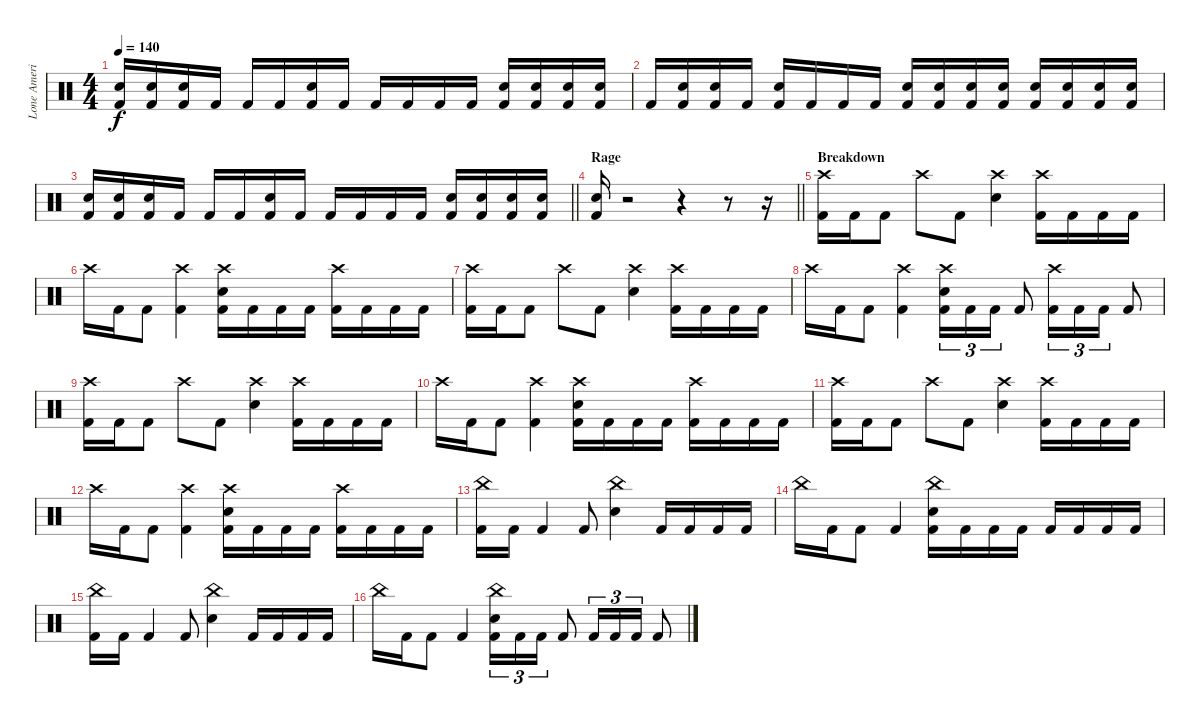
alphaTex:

\track ("Lone America" "Lone Ameri") {instrument percussion}
\staff {score}
\articulation defaults
\ts (4 4)
\tempo 140
\clef neutral
\ks c
("Electric Snare (hit)" "Kick (hit) 2").16{dy f} ("Electric Snare (hit)" "Kick (hit) 2").16 ("Electric Snare (hit)" "Kick (hit) 2").16 "Kick (hit) 2".16 "Kick (hit) 2".16 "Kick (hit) 2".16 ("Electric Snare (hit)" "Kick (hit) 2").16 "Kick (hit) 2".16 "Kick (hit) 2".16 "Kick (hit) 2".16 "Kick (hit) 2".16 "Kick (hit) 2".16 ("Electric Snare (hit)" "Kick (hit) 2").16 ("Electric Snare (hit)" "Kick (hit) 2").16 ("Electric Snare (hit)" "Kick (hit) 2").16 ("Electric Snare (hit)" "Kick (hit) 2").16 |
"Kick (hit) 2".16 ("Electric Snare (hit)" "Kick (hit) 2").16 ("Electric Snare (hit)" "Kick (hit) 2").16 "Kick (hit) 2".16 ("Electric Snare (hit)" "Kick (hit) 2").16 "Kick (hit) 2".16 "Kick (hit) 2".16 "Kick (hit) 2".16 ("Electric Snare (hit)" "Kick (hit) 2").16 ("Electric Snare (hit)" "Kick (hit) 2").16 ("Electric Snare (hit)" "Kick (hit) 2").16 ("Electric Snare (hit)" "Kick (hit) 2").16 ("Electric Snare (hit)" "Kick (hit) 2").16 ("Electric Snare (hit)" "Kick (hit) 2").16 ("Electric Snare (hit)" "Kick (hit) 2").16 ("Electric Snare (hit)" "Kick (hit) 2").16 |
\barLineRight lightlight
("Electric Snare (hit)" "Kick (hit) 2").16 ("Electric Snare (hit)" "Kick (hit) 2").16 ("Electric Snare (hit)" "Kick (hit) 2").16 "Kick (hit) 2".16 "Kick (hit) 2".16 "Kick (hit) 2".16 ("Electric Snare (hit)" "Kick (hit) 2").16 "Kick (hit) 2".16 "Kick (hit) 2".16 "Kick (hit) 2".16 "Kick (hit) 2".16 "Kick (hit) 2".16 ("Electric Snare (hit)" "Kick (hit) 2").16 ("Electric Snare (hit)" "Kick (hit) 2").16 ("Electric Snare (hit)" "Kick (hit) 2").16 ("Electric Snare (hit)" "Kick (hit) 2").16 |
\section ("" "Rage")
\barLineRight lightlight
("Electric Snare (hit)" "Kick (hit) 2").16 r.2 r.4 r.8 r.16 |
\section ("" "Breakdown")
("Crash high (hit)" "Kick (hit) 2").16 "Kick (hit) 2".16 "Kick (hit) 2".8 "Crash high (hit)".8 "Kick (hit) 2".8 ("Crash high (hit)" "Electric Snare (hit)").4 ("Crash high (hit)" "Kick (hit) 2").16 "Kick (hit) 2".16 "Kick (hit) 2".16 "Kick (hit) 2".16 |
"Crash high (hit)".16 "Kick (hit) 2".16 "Kick (hit) 2".8 ("Crash high (hit)" "Kick (hit) 2").4 ("Crash high (hit)" "Electric Snare (hit)" "Kick (hit) 2").16 "Kick (hit) 2".16 "Kick (hit) 2".16 "Kick (hit) 2".16 ("Crash high (hit)" "Kick (hit) 2").16 "Kick (hit) 2".16 "Kick (hit) 2".16 "Kick (hit) 2".16 |
("Crash high (hit)" "Kick (hit) 2").16 "Kick (hit) 2".16 "Kick (hit) 2".8 "Crash high (hit)".8 "Kick (hit) 2".8 ("Crash high (hit)" "Electric Snare (hit)").4 ("Crash high (hit)" "Kick (hit) 2").16 "Kick (hit) 2".16 "Kick (hit) 2".16 "Kick (hit) 2".16 |
"Crash high (hit)".16 "Kick (hit) 2".16 "Kick (hit) 2".8 ("Crash high (hit)" "Kick (hit) 2").4 ("Crash high (hit)" "Electric Snare (hit)" "Kick (hit) 2").16{tu (3 2)} "Kick (hit) 2".16{tu (3 2)} "Kick (hit) 2".16{tu (3 2)} "Kick (hit) 2".8 ("Crash high (hit)" "Kick (hit) 2").16{tu (3 2)} "Kick (hit) 2".16{tu (3 2)} "Kick (hit) 2".16{tu (3 2)} "Kick (hit) 2".8 |
("Crash high (hit)" "Kick (hit) 2").16 "Kick (hit) 2".16 "Kick (hit) 2".8 "Crash high (hit)".8 "Kick (hit) 2".8 ("Crash high (hit)" "Electric Snare (hit)").4 ("Crash high (hit)" "Kick (hit) 2").16 "Kick (hit) 2".16 "Kick (hit) 2".16 "Kick (hit) 2".16 |
"Crash high (hit)".16 "Kick (hit) 2".16 "Kick (hit) 2".8 ("Crash high (hit)" "Kick (hit) 2").4 ("Crash high (hit)" "Electric Snare (hit)" "Kick (hit) 2").16 "Kick (hit) 2".16 "Kick (hit) 2".16 "Kick (hit) 2".16 ("Crash high (hit)" "Kick (hit) 2").16 "Kick (hit) 2".16 "Kick (hit) 2".16 "Kick (hit) 2".16 |
("Crash high (hit)" "Kick (hit) 2").16 "Kick (hit) 2".16 "Kick (hit) 2".8 "Crash high (hit)".8 "Kick (hit) 2".8 ("Crash high (hit)" "Electric Snare (hit)").4 ("Crash high (hit)" "Kick (hit) 2").16 "Kick (hit) 2".16 "Kick (hit) 2".16 "Kick (hit) 2".16 |
"Crash high (hit)".16 "Kick (hit) 2".16 "Kick (hit) 2".8 ("Crash high (hit)" "Kick (hit) 2").4 ("Crash high (hit)" "Electric Snare (hit)" "Kick (hit) 2").16 "Kick (hit) 2".16 "Kick (hit) 2".16 "Kick (hit) 2".16 ("Crash high (hit)" "Kick (hit) 2").16 "Kick (hit) 2".16 "Kick (hit) 2".16 "Kick (hit) 2".16 |
("China (hit)" "Kick (hit) 2").16 "Kick (hit) 2".16 "Kick (hit) 2".4 "Kick (hit) 2".8 ("China (hit)" "Electric Snare (hit)").4 "Kick (hit) 2".16 "Kick (hit) 2".16 "Kick (hit) 2".16 "Kick (hit) 2".16 |
"China (hit)".16 "Kick (hit) 2".16 "Kick (hit) 2".8 "Kick (hit) 2".4 ("China (hit)" "Electric Snare (hit)" "Kick (hit) 2").16 "Kick (hit) 2".16 "Kick (hit) 2".16 "Kick (hit) 2".16 "Kick (hit) 2".16 "Kick (hit) 2".16 "Kick (hit) 2".16 "Kick (hit) 2".16 |
("China (hit)" "Kick (hit) 2").16 "Kick (hit) 2".16 "Kick (hit) 2".4 "Kick (hit) 2".8 ("China (hit)" "Electric Snare (hit)").4 "Kick (hit) 2".16 "Kick (hit) 2".16 "Kick (hit) 2".16 "Kick (hit) 2".16 |
"China (hit)".16 "Kick (hit) 2".16 "Kick (hit) 2".8 "Kick (hit) 2".4 ("China (hit)" "Electric Snare (hit)" "Kick (hit) 2").16{tu (3 2)} "Kick (hit) 2".16{tu (3 2)} "Kick (hit) 2".16{tu (3 2)} "Kick (hit) 2".8 "Kick (hit) 2".16{tu (3 2)} "Kick (hit) 2".16{tu (3 2)} "Kick (hit) 2".16{tu (3 2)} "Kick (hit) 2".8
